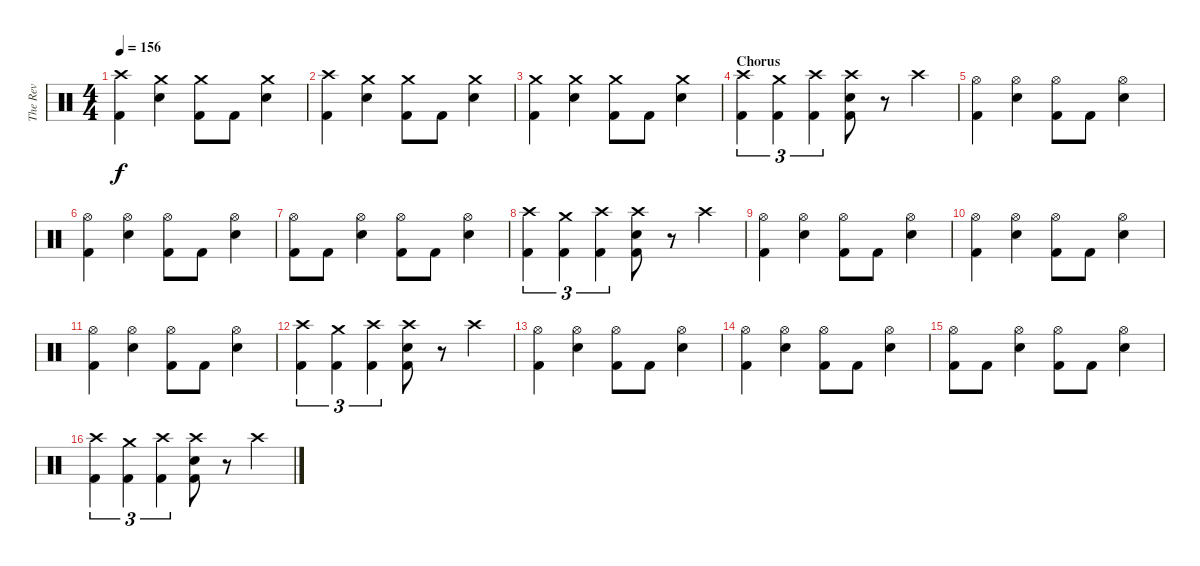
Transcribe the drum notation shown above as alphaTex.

\track ("The Rev" "The Rev") {instrument percussion}
\staff {score}
\articulation defaults
\ts (4 4)
\tempo 156
\clef neutral
\ks c
("Crash high (hit)" "Kick (hit) 2").4{dy f} ("Crash medium (hit)" "Electric Snare (hit)").4 ("Crash medium (hit)" "Kick (hit) 2").8 "Kick (hit) 2".8 ("Crash medium (hit)" "Electric Snare (hit)").4 |
("Crash high (hit)" "Kick (hit) 2").4 ("Crash medium (hit)" "Electric Snare (hit)").4 ("Crash medium (hit)" "Kick (hit) 2").8 "Kick (hit) 2".8 ("Crash medium (hit)" "Electric Snare (hit)").4 |
("Crash medium (hit)" "Kick (hit) 2").4 ("Crash medium (hit)" "Electric Snare (hit)").4 ("Crash medium (hit)" "Kick (hit) 2").8 "Kick (hit) 2".8 ("Crash medium (hit)" "Electric Snare (hit)").4 |
\section ("" "Chorus")
("Crash high (hit)" "Kick (hit) 2").4{tu (3 2)} ("Crash medium (hit)" "Kick (hit) 2").4{tu (3 2)} ("Crash high (hit)" "Kick (hit) 2").4{tu (3 2)} ("Crash high (hit)" "Electric Snare (hit)" "Kick (hit) 2").8 r.8 "Crash high (hit)".4 |
("Hi-Hat (open)" "Kick (hit) 2").4 ("Hi-Hat (open)" "Electric Snare (hit)").4 ("Hi-Hat (open)" "Kick (hit) 2").8 "Kick (hit) 2".8 ("Hi-Hat (open)" "Electric Snare (hit)").4 |
("Hi-Hat (open)" "Kick (hit) 2").4 ("Hi-Hat (open)" "Electric Snare (hit)").4 ("Hi-Hat (open)" "Kick (hit) 2").8 "Kick (hit) 2".8 ("Hi-Hat (open)" "Electric Snare (hit)").4 |
("Hi-Hat (open)" "Kick (hit) 2").8 "Kick (hit) 2".8 ("Hi-Hat (open)" "Electric Snare (hit)").4 ("Hi-Hat (open)" "Kick (hit) 2").8 "Kick (hit) 2".8 ("Hi-Hat (open)" "Electric Snare (hit)").4 |
("Crash high (hit)" "Kick (hit) 2").4{tu (3 2)} ("Crash medium (hit)" "Kick (hit) 2").4{tu (3 2)} ("Crash high (hit)" "Kick (hit) 2").4{tu (3 2)} ("Crash high (hit)" "Electric Snare (hit)" "Kick (hit) 2").8 r.8 "Crash high (hit)".4 |
("Hi-Hat (open)" "Kick (hit) 2").4 ("Hi-Hat (open)" "Electric Snare (hit)").4 ("Hi-Hat (open)" "Kick (hit) 2").8 "Kick (hit) 2".8 ("Hi-Hat (open)" "Electric Snare (hit)").4 |
("Hi-Hat (open)" "Kick (hit) 2").4 ("Hi-Hat (open)" "Electric Snare (hit)").4 ("Hi-Hat (open)" "Kick (hit) 2").8 "Kick (hit) 2".8 ("Hi-Hat (open)" "Electric Snare (hit)").4 |
("Hi-Hat (open)" "Kick (hit) 2").4 ("Hi-Hat (open)" "Electric Snare (hit)").4 ("Hi-Hat (open)" "Kick (hit) 2").8 "Kick (hit) 2".8 ("Hi-Hat (open)" "Electric Snare (hit)").4 |
("Crash high (hit)" "Kick (hit) 2").4{tu (3 2)} ("Crash medium (hit)" "Kick (hit) 2").4{tu (3 2)} ("Crash high (hit)" "Kick (hit) 2").4{tu (3 2)} ("Crash high (hit)" "Electric Snare (hit)" "Kick (hit) 2").8 r.8 "Crash high (hit)".4 |
("Hi-Hat (open)" "Kick (hit) 2").4 ("Hi-Hat (open)" "Electric Snare (hit)").4 ("Hi-Hat (open)" "Kick (hit) 2").8 "Kick (hit) 2".8 ("Hi-Hat (open)" "Electric Snare (hit)").4 |
("Hi-Hat (open)" "Kick (hit) 2").4 ("Hi-Hat (open)" "Electric Snare (hit)").4 ("Hi-Hat (open)" "Kick (hit) 2").8 "Kick (hit) 2".8 ("Hi-Hat (open)" "Electric Snare (hit)").4 |
("Hi-Hat (open)" "Kick (hit) 2").8 "Kick (hit) 2".8 ("Hi-Hat (open)" "Electric Snare (hit)").4 ("Hi-Hat (open)" "Kick (hit) 2").8 "Kick (hit) 2".8 ("Hi-Hat (open)" "Electric Snare (hit)").4 |
("Crash high (hit)" "Kick (hit) 2").4{tu (3 2)} ("Crash medium (hit)" "Kick (hit) 2").4{tu (3 2)} ("Crash high (hit)" "Kick (hit) 2").4{tu (3 2)} ("Crash high (hit)" "Electric Snare (hit)" "Kick (hit) 2").8 r.8 "Crash high (hit)".4
